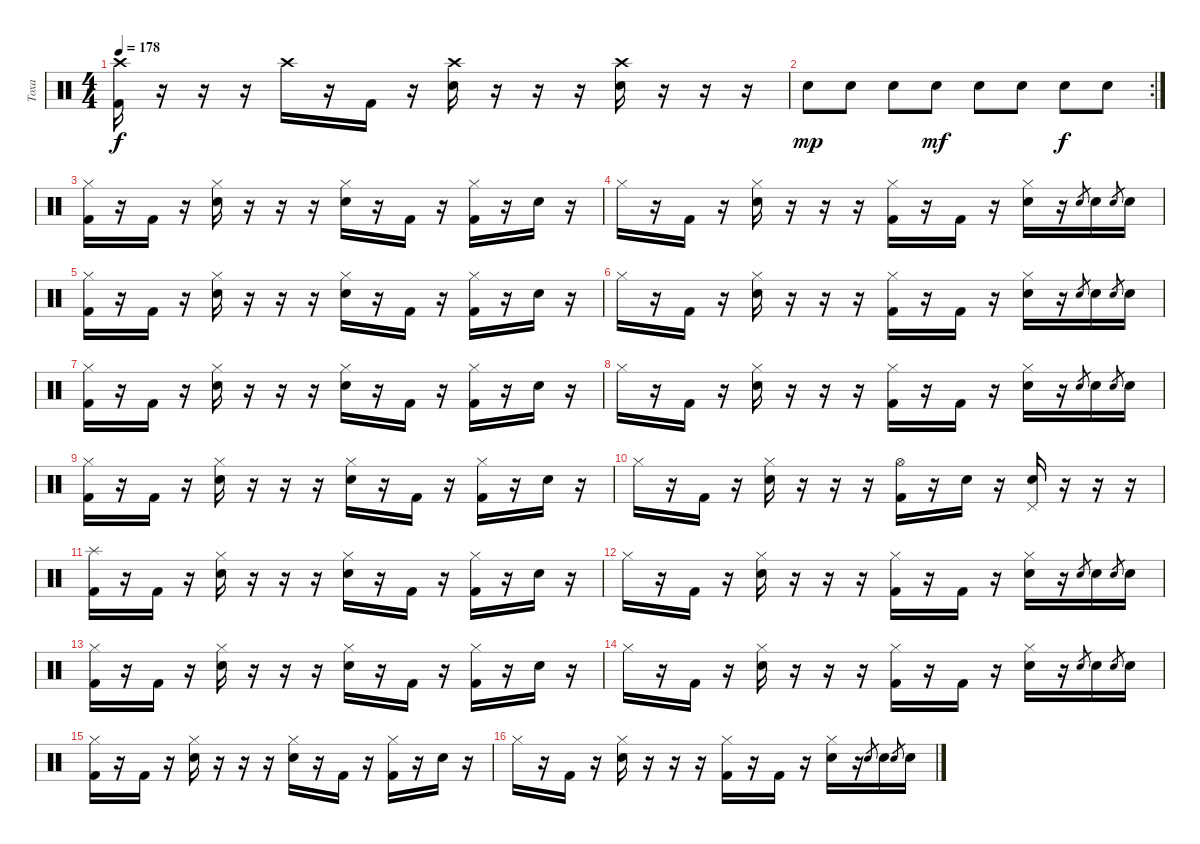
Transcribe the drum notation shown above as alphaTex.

\track ("Тоха" "Тоха") {instrument percussion}
\staff {score}
\articulation defaults
\ts (4 4)
\tempo 178
\clef neutral
\ks c
("Crash high (hit)" "Kick (hit) 2").16{dy f} r.16 r.16 r.16 "Crash high (hit)".16 r.16 "Kick (hit) 2".16 r.16 ("Crash high (hit)" "Electric Snare (hit)").16 r.16 r.16 r.16 ("Crash high (hit)" "Electric Snare (hit)").16 r.16 r.16 r.16 |
\rc 2 "Electric Snare (hit)".8{dy mp} "Electric Snare (hit)".8 "Electric Snare (hit)".8 "Electric Snare (hit)".8{dy mf} "Electric Snare (hit)".8 "Electric Snare (hit)".8 "Electric Snare (hit)".8{dy f} "Electric Snare (hit)".8
|
("Hi-Hat (closed)" "Kick (hit) 2").16 r.16 "Kick (hit) 2".16 r.16 ("Hi-Hat (closed)" "Electric Snare (hit)").16 r.16 r.16 r.16 ("Hi-Hat (closed)" "Electric Snare (hit)").16 r.16 "Kick (hit) 2".16 r.16 ("Hi-Hat (closed)" "Kick (hit) 2").16 r.16 "Electric Snare (hit)".16 r.16 |
"Hi-Hat (closed)".16 r.16 "Kick (hit) 2".16 r.16 ("Hi-Hat (closed)" "Electric Snare (hit)").16 r.16 r.16 r.16 ("Hi-Hat (closed)" "Kick (hit) 2").16 r.16 "Kick (hit) 2".16 r.16 ("Hi-Hat (closed)" "Electric Snare (hit)").16 r.16 "Electric Snare (hit)".8{gr} "Electric Snare (hit)".16 "Electric Snare (hit)".8{gr} "Electric Snare (hit)".16 |
("Hi-Hat (closed)" "Kick (hit) 2").16 r.16 "Kick (hit) 2".16 r.16 ("Hi-Hat (closed)" "Electric Snare (hit)").16 r.16 r.16 r.16 ("Hi-Hat (closed)" "Electric Snare (hit)").16 r.16 "Kick (hit) 2".16 r.16 ("Hi-Hat (closed)" "Kick (hit) 2").16 r.16 "Electric Snare (hit)".16 r.16 |
"Hi-Hat (closed)".16 r.16 "Kick (hit) 2".16 r.16 ("Hi-Hat (closed)" "Electric Snare (hit)").16 r.16 r.16 r.16 ("Hi-Hat (closed)" "Kick (hit) 2").16 r.16 "Kick (hit) 2".16 r.16 ("Hi-Hat (closed)" "Electric Snare (hit)").16 r.16 "Electric Snare (hit)".8{gr} "Electric Snare (hit)".16 "Electric Snare (hit)".8{gr} "Electric Snare (hit)".16 |
("Hi-Hat (closed)" "Kick (hit) 2").16 r.16 "Kick (hit) 2".16 r.16 ("Hi-Hat (closed)" "Electric Snare (hit)").16 r.16 r.16 r.16 ("Hi-Hat (closed)" "Electric Snare (hit)").16 r.16 "Kick (hit) 2".16 r.16 ("Hi-Hat (closed)" "Kick (hit) 2").16 r.16 "Electric Snare (hit)".16 r.16 |
"Hi-Hat (closed)".16 r.16 "Kick (hit) 2".16 r.16 ("Hi-Hat (closed)" "Electric Snare (hit)").16 r.16 r.16 r.16 ("Hi-Hat (closed)" "Kick (hit) 2").16 r.16 "Kick (hit) 2".16 r.16 ("Hi-Hat (closed)" "Electric Snare (hit)").16 r.16 "Electric Snare (hit)".8{gr} "Electric Snare (hit)".16 "Electric Snare (hit)".8{gr} "Electric Snare (hit)".16 |
("Hi-Hat (closed)" "Kick (hit) 2").16 r.16 "Kick (hit) 2".16 r.16 ("Hi-Hat (closed)" "Electric Snare (hit)").16 r.16 r.16 r.16 ("Hi-Hat (closed)" "Electric Snare (hit)").16 r.16 "Kick (hit) 2".16 r.16 ("Hi-Hat (closed)" "Kick (hit) 2").16 r.16 "Electric Snare (hit)".16 r.16 |
"Hi-Hat (closed)".16 r.16 "Kick (hit) 2".16 r.16 ("Hi-Hat (closed)" "Electric Snare (hit)").16 r.16 r.16 r.16 ("Hi-Hat (open)" "Kick (hit) 2").16 r.16 "Electric Snare (hit)".16 r.16 ("Pedal Hi-Hat (hit)" "Electric Snare (hit)").16 r.16 r.16 r.16 |
("Splash (hit)" "Kick (hit) 2").16 r.16 "Kick (hit) 2".16 r.16 ("Hi-Hat (closed)" "Electric Snare (hit)").16 r.16 r.16 r.16 ("Hi-Hat (closed)" "Electric Snare (hit)").16 r.16 "Kick (hit) 2".16 r.16 ("Hi-Hat (closed)" "Kick (hit) 2").16 r.16 "Electric Snare (hit)".16 r.16 |
"Hi-Hat (closed)".16 r.16 "Kick (hit) 2".16 r.16 ("Hi-Hat (closed)" "Electric Snare (hit)").16 r.16 r.16 r.16 ("Hi-Hat (closed)" "Kick (hit) 2").16 r.16 "Kick (hit) 2".16 r.16 ("Hi-Hat (closed)" "Electric Snare (hit)").16 r.16 "Electric Snare (hit)".8{gr} "Electric Snare (hit)".16 "Electric Snare (hit)".8{gr} "Electric Snare (hit)".16 |
("Hi-Hat (closed)" "Kick (hit) 2").16 r.16 "Kick (hit) 2".16 r.16 ("Hi-Hat (closed)" "Electric Snare (hit)").16 r.16 r.16 r.16 ("Hi-Hat (closed)" "Electric Snare (hit)").16 r.16 "Kick (hit) 2".16 r.16 ("Hi-Hat (closed)" "Kick (hit) 2").16 r.16 "Electric Snare (hit)".16 r.16 |
"Hi-Hat (closed)".16 r.16 "Kick (hit) 2".16 r.16 ("Hi-Hat (closed)" "Electric Snare (hit)").16 r.16 r.16 r.16 ("Hi-Hat (closed)" "Kick (hit) 2").16 r.16 "Kick (hit) 2".16 r.16 ("Hi-Hat (closed)" "Electric Snare (hit)").16 r.16 "Electric Snare (hit)".8{gr} "Electric Snare (hit)".16 "Electric Snare (hit)".8{gr} "Electric Snare (hit)".16 |
("Hi-Hat (closed)" "Kick (hit) 2").16 r.16 "Kick (hit) 2".16 r.16 ("Hi-Hat (closed)" "Electric Snare (hit)").16 r.16 r.16 r.16 ("Hi-Hat (closed)" "Electric Snare (hit)").16 r.16 "Kick (hit) 2".16 r.16 ("Hi-Hat (closed)" "Kick (hit) 2").16 r.16 "Electric Snare (hit)".16 r.16 |
"Hi-Hat (closed)".16 r.16 "Kick (hit) 2".16 r.16 ("Hi-Hat (closed)" "Electric Snare (hit)").16 r.16 r.16 r.16 ("Hi-Hat (closed)" "Kick (hit) 2").16 r.16 "Kick (hit) 2".16 r.16 ("Hi-Hat (closed)" "Electric Snare (hit)").16 r.16 "Electric Snare (hit)".8{gr} "Electric Snare (hit)".16 "Electric Snare (hit)".8{gr} "Electric Snare (hit)".16
